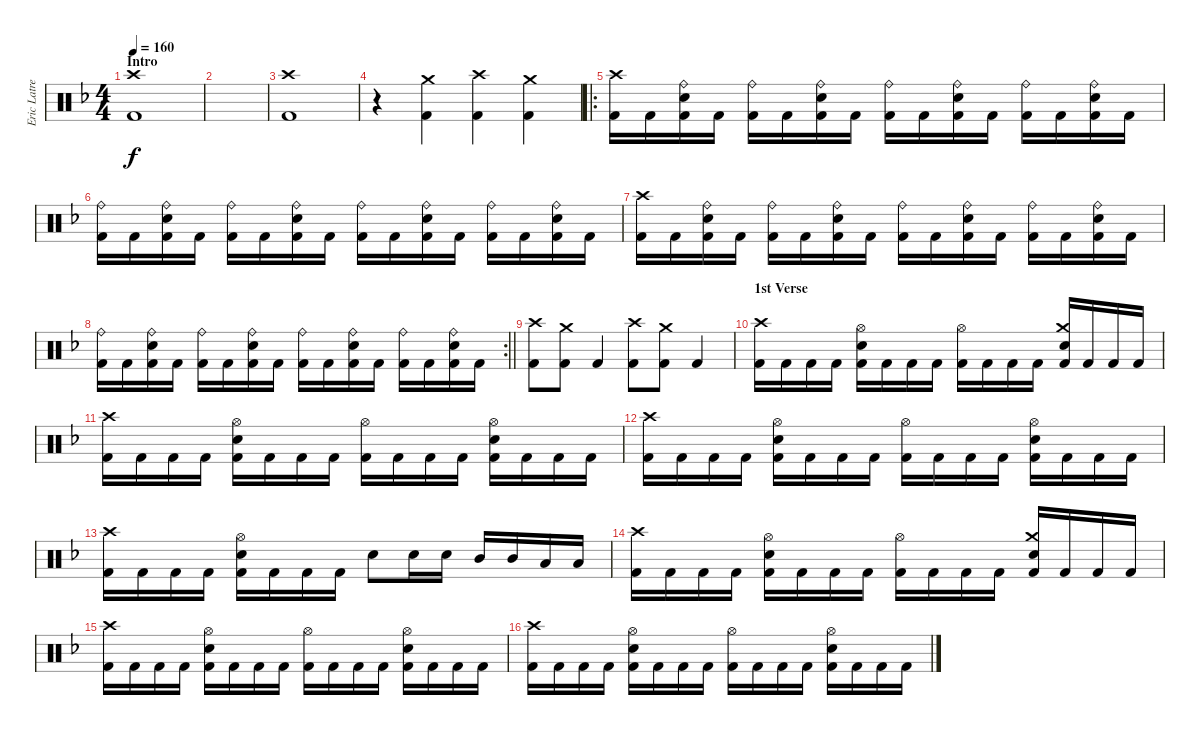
\track ("Eric Latreille" "Eric Latre") {instrument percussion}
\staff {score}
\articulation defaults
\ts (4 4)
\section ("" "Intro")
\tempo 160
\clef neutral
\ks dminor
("Crash high (hit)" "Kick (hit) 2").1{dy f} |
|
("Crash high (hit)" "Kick (hit) 2").1 |
r.4 ("Crash medium (hit)" "Kick (hit) 2").4 ("Crash high (hit)" "Kick (hit) 2").4 ("Crash medium (hit)" "Kick (hit) 2").4 |
\ro
("Crash high (hit)" "Kick (hit) 2").16 "Kick (hit) 2".16 ("Ride (bell)" "Snare (hit) 2" "Kick (hit) 2").16 "Kick (hit) 2".16 ("Ride (bell)" "Kick (hit) 2").16 "Kick (hit) 2".16 ("Ride (bell)" "Snare (hit) 2" "Kick (hit) 2").16 "Kick (hit) 2".16 ("Ride (bell)" "Kick (hit) 2").16 "Kick (hit) 2".16 ("Ride (bell)" "Snare (hit) 2" "Kick (hit) 2").16 "Kick (hit) 2".16 ("Ride (bell)" "Kick (hit) 2").16 "Kick (hit) 2".16 ("Ride (bell)" "Snare (hit) 2" "Kick (hit) 2").16 "Kick (hit) 2".16 |
("Ride (bell)" "Kick (hit) 2").16 "Kick (hit) 2".16 ("Ride (bell)" "Snare (hit) 2" "Kick (hit) 2").16 "Kick (hit) 2".16 ("Ride (bell)" "Kick (hit) 2").16 "Kick (hit) 2".16 ("Ride (bell)" "Snare (hit) 2" "Kick (hit) 2").16 "Kick (hit) 2".16 ("Ride (bell)" "Kick (hit) 2").16 "Kick (hit) 2".16 ("Ride (bell)" "Snare (hit) 2" "Kick (hit) 2").16 "Kick (hit) 2".16 ("Ride (bell)" "Kick (hit) 2").16 "Kick (hit) 2".16 ("Ride (bell)" "Snare (hit) 2" "Kick (hit) 2").16 "Kick (hit) 2".16 |
("Crash high (hit)" "Kick (hit) 2").16 "Kick (hit) 2".16 ("Ride (bell)" "Snare (hit) 2" "Kick (hit) 2").16 "Kick (hit) 2".16 ("Ride (bell)" "Kick (hit) 2").16 "Kick (hit) 2".16 ("Ride (bell)" "Snare (hit) 2" "Kick (hit) 2").16 "Kick (hit) 2".16 ("Ride (bell)" "Kick (hit) 2").16 "Kick (hit) 2".16 ("Ride (bell)" "Snare (hit) 2" "Kick (hit) 2").16 "Kick (hit) 2".16 ("Ride (bell)" "Kick (hit) 2").16 "Kick (hit) 2".16 ("Ride (bell)" "Snare (hit) 2" "Kick (hit) 2").16 "Kick (hit) 2".16 |
\rc 2
\barLineRight lightlight
("Ride (bell)" "Kick (hit) 2").16 "Kick (hit) 2".16 ("Ride (bell)" "Snare (hit) 2" "Kick (hit) 2").16 "Kick (hit) 2".16 ("Ride (bell)" "Kick (hit) 2").16 "Kick (hit) 2".16 ("Ride (bell)" "Snare (hit) 2" "Kick (hit) 2").16 "Kick (hit) 2".16 ("Ride (bell)" "Kick (hit) 2").16 "Kick (hit) 2".16 ("Ride (bell)" "Snare (hit) 2" "Kick (hit) 2").16 "Kick (hit) 2".16 ("Ride (bell)" "Kick (hit) 2").16 "Kick (hit) 2".16 ("Ride (bell)" "Snare (hit) 2" "Kick (hit) 2").16 "Kick (hit) 2".16 |
("Crash high (hit)" "Kick (hit) 2").8 ("Crash medium (hit)" "Kick (hit) 2").8 "Kick (hit) 2".4 ("Crash high (hit)" "Kick (hit) 2").8 ("Crash medium (hit)" "Kick (hit) 2").8 "Kick (hit) 2".4 |
\section ("" "1st Verse")
("Crash high (hit)" "Kick (hit) 2").16 "Kick (hit) 2".16 "Kick (hit) 2".16 "Kick (hit) 2".16 ("Hi-Hat (open)" "Snare (hit) 2" "Kick (hit) 2").16 "Kick (hit) 2".16 "Kick (hit) 2".16 "Kick (hit) 2".16 ("Hi-Hat (open)" "Kick (hit) 2").16 "Kick (hit) 2".16 "Kick (hit) 2".16 "Kick (hit) 2".16 ("Crash medium (hit)" "Snare (hit) 2" "Kick (hit) 2").16 "Kick (hit) 2".16 "Kick (hit) 2".16 "Kick (hit) 2".16 |
("Crash high (hit)" "Kick (hit) 2").16 "Kick (hit) 2".16 "Kick (hit) 2".16 "Kick (hit) 2".16 ("Hi-Hat (open)" "Snare (hit) 2" "Kick (hit) 2").16 "Kick (hit) 2".16 "Kick (hit) 2".16 "Kick (hit) 2".16 ("Hi-Hat (open)" "Kick (hit) 2").16 "Kick (hit) 2".16 "Kick (hit) 2".16 "Kick (hit) 2".16 ("Hi-Hat (open)" "Snare (hit) 2" "Kick (hit) 2").16 "Kick (hit) 2".16 "Kick (hit) 2".16 "Kick (hit) 2".16 |
("Crash high (hit)" "Kick (hit) 2").16 "Kick (hit) 2".16 "Kick (hit) 2".16 "Kick (hit) 2".16 ("Hi-Hat (open)" "Snare (hit) 2" "Kick (hit) 2").16 "Kick (hit) 2".16 "Kick (hit) 2".16 "Kick (hit) 2".16 ("Hi-Hat (open)" "Kick (hit) 2").16 "Kick (hit) 2".16 "Kick (hit) 2".16 "Kick (hit) 2".16 ("Hi-Hat (open)" "Snare (hit) 2" "Kick (hit) 2").16 "Kick (hit) 2".16 "Kick (hit) 2".16 "Kick (hit) 2".16 |
("Crash high (hit)" "Kick (hit) 2").16 "Kick (hit) 2".16 "Kick (hit) 2".16 "Kick (hit) 2".16 ("Hi-Hat (open)" "Snare (hit) 2" "Kick (hit) 2").16 "Kick (hit) 2".16 "Kick (hit) 2".16 "Kick (hit) 2".16 "Snare (hit) 2".8 "Snare (hit) 2".16 "Snare (hit) 2".16 "Mid Tom (hit)".16 "Mid Tom (hit)".16 "Low Tom (hit)".16 "Low Tom (hit)".16 |
("Crash high (hit)" "Kick (hit) 2").16 "Kick (hit) 2".16 "Kick (hit) 2".16 "Kick (hit) 2".16 ("Hi-Hat (open)" "Snare (hit) 2" "Kick (hit) 2").16 "Kick (hit) 2".16 "Kick (hit) 2".16 "Kick (hit) 2".16 ("Hi-Hat (open)" "Kick (hit) 2").16 "Kick (hit) 2".16 "Kick (hit) 2".16 "Kick (hit) 2".16 ("Crash medium (hit)" "Snare (hit) 2" "Kick (hit) 2").16 "Kick (hit) 2".16 "Kick (hit) 2".16 "Kick (hit) 2".16 |
("Crash high (hit)" "Kick (hit) 2").16 "Kick (hit) 2".16 "Kick (hit) 2".16 "Kick (hit) 2".16 ("Hi-Hat (open)" "Snare (hit) 2" "Kick (hit) 2").16 "Kick (hit) 2".16 "Kick (hit) 2".16 "Kick (hit) 2".16 ("Hi-Hat (open)" "Kick (hit) 2").16 "Kick (hit) 2".16 "Kick (hit) 2".16 "Kick (hit) 2".16 ("Hi-Hat (open)" "Snare (hit) 2" "Kick (hit) 2").16 "Kick (hit) 2".16 "Kick (hit) 2".16 "Kick (hit) 2".16 |
("Crash high (hit)" "Kick (hit) 2").16 "Kick (hit) 2".16 "Kick (hit) 2".16 "Kick (hit) 2".16 ("Hi-Hat (open)" "Snare (hit) 2" "Kick (hit) 2").16 "Kick (hit) 2".16 "Kick (hit) 2".16 "Kick (hit) 2".16 ("Hi-Hat (open)" "Kick (hit) 2").16 "Kick (hit) 2".16 "Kick (hit) 2".16 "Kick (hit) 2".16 ("Hi-Hat (open)" "Snare (hit) 2" "Kick (hit) 2").16 "Kick (hit) 2".16 "Kick (hit) 2".16 "Kick (hit) 2".16
